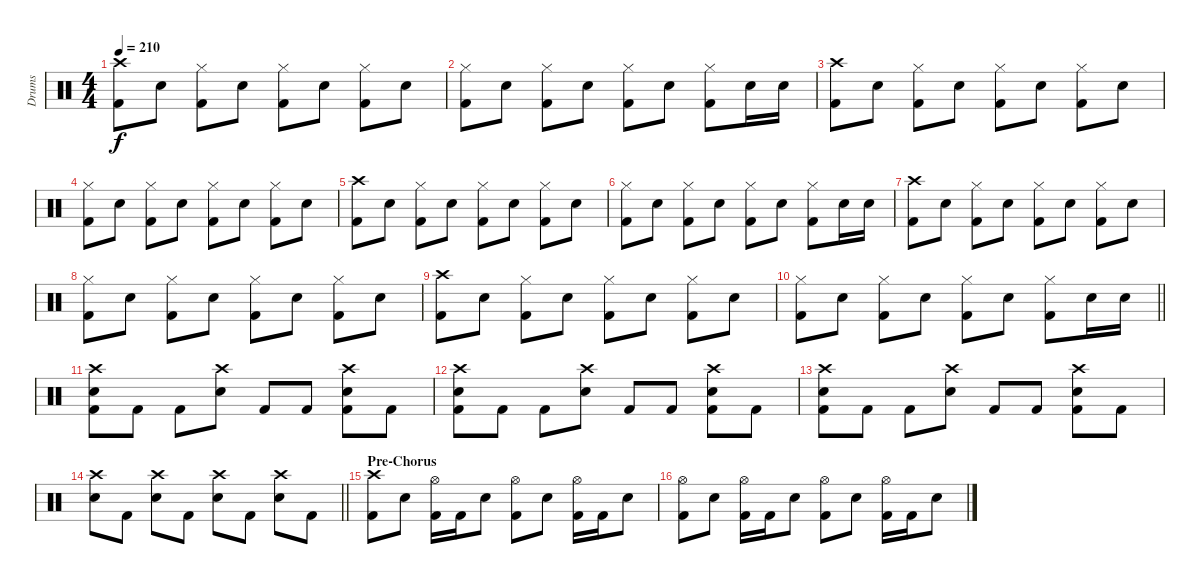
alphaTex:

\track ("Drums" "Drums") {instrument percussion}
\staff {score}
\articulation defaults
\ts (4 4)
\tempo 210
\clef neutral
\ks c
("Crash high (hit)" "Kick (hit) 2").8{dy f} "Snare (hit) 2".8 ("Hi-Hat (closed)" "Kick (hit) 2").8 "Snare (hit) 2".8 ("Hi-Hat (closed)" "Kick (hit) 2").8 "Snare (hit) 2".8 ("Hi-Hat (closed)" "Kick (hit) 2").8 "Snare (hit) 2".8 |
("Hi-Hat (closed)" "Kick (hit) 2").8 "Snare (hit) 2".8 ("Hi-Hat (closed)" "Kick (hit) 2").8 "Snare (hit) 2".8 ("Hi-Hat (closed)" "Kick (hit) 2").8 "Snare (hit) 2".8 ("Hi-Hat (closed)" "Kick (hit) 2").8 "Snare (hit) 2".16 "Snare (hit) 2".16 |
("Crash high (hit)" "Kick (hit) 2").8 "Snare (hit) 2".8 ("Hi-Hat (closed)" "Kick (hit) 2").8 "Snare (hit) 2".8 ("Hi-Hat (closed)" "Kick (hit) 2").8 "Snare (hit) 2".8 ("Hi-Hat (closed)" "Kick (hit) 2").8 "Snare (hit) 2".8 |
("Hi-Hat (closed)" "Kick (hit) 2").8 "Snare (hit) 2".8 ("Hi-Hat (closed)" "Kick (hit) 2").8 "Snare (hit) 2".8 ("Hi-Hat (closed)" "Kick (hit) 2").8 "Snare (hit) 2".8 ("Hi-Hat (closed)" "Kick (hit) 2").8 "Snare (hit) 2".8 |
("Crash high (hit)" "Kick (hit) 2").8 "Snare (hit) 2".8 ("Hi-Hat (closed)" "Kick (hit) 2").8 "Snare (hit) 2".8 ("Hi-Hat (closed)" "Kick (hit) 2").8 "Snare (hit) 2".8 ("Hi-Hat (closed)" "Kick (hit) 2").8 "Snare (hit) 2".8 |
("Hi-Hat (closed)" "Kick (hit) 2").8 "Snare (hit) 2".8 ("Hi-Hat (closed)" "Kick (hit) 2").8 "Snare (hit) 2".8 ("Hi-Hat (closed)" "Kick (hit) 2").8 "Snare (hit) 2".8 ("Hi-Hat (closed)" "Kick (hit) 2").8 "Snare (hit) 2".16 "Snare (hit) 2".16 |
("Crash high (hit)" "Kick (hit) 2").8 "Snare (hit) 2".8 ("Hi-Hat (closed)" "Kick (hit) 2").8 "Snare (hit) 2".8 ("Hi-Hat (closed)" "Kick (hit) 2").8 "Snare (hit) 2".8 ("Hi-Hat (closed)" "Kick (hit) 2").8 "Snare (hit) 2".8 |
("Hi-Hat (closed)" "Kick (hit) 2").8 "Snare (hit) 2".8 ("Hi-Hat (closed)" "Kick (hit) 2").8 "Snare (hit) 2".8 ("Hi-Hat (closed)" "Kick (hit) 2").8 "Snare (hit) 2".8 ("Hi-Hat (closed)" "Kick (hit) 2").8 "Snare (hit) 2".8 |
("Crash high (hit)" "Kick (hit) 2").8 "Snare (hit) 2".8 ("Hi-Hat (closed)" "Kick (hit) 2").8 "Snare (hit) 2".8 ("Hi-Hat (closed)" "Kick (hit) 2").8 "Snare (hit) 2".8 ("Hi-Hat (closed)" "Kick (hit) 2").8 "Snare (hit) 2".8 |
\barLineRight lightlight
("Hi-Hat (closed)" "Kick (hit) 2").8 "Snare (hit) 2".8 ("Hi-Hat (closed)" "Kick (hit) 2").8 "Snare (hit) 2".8 ("Hi-Hat (closed)" "Kick (hit) 2").8 "Snare (hit) 2".8 ("Hi-Hat (closed)" "Kick (hit) 2").8 "Snare (hit) 2".16 "Snare (hit) 2".16 |
("Crash high (hit)" "Snare (hit) 2" "Kick (hit) 2").8 "Kick (hit) 2".8 "Kick (hit) 2".8 ("Crash high (hit)" "Snare (hit) 2").8 "Kick (hit) 2".8 "Kick (hit) 2".8 ("Crash high (hit)" "Snare (hit) 2" "Kick (hit) 2").8 "Kick (hit) 2".8 |
("Crash high (hit)" "Snare (hit) 2" "Kick (hit) 2").8 "Kick (hit) 2".8 "Kick (hit) 2".8 ("Crash high (hit)" "Snare (hit) 2").8 "Kick (hit) 2".8 "Kick (hit) 2".8 ("Crash high (hit)" "Snare (hit) 2" "Kick (hit) 2").8 "Kick (hit) 2".8 |
("Crash high (hit)" "Snare (hit) 2" "Kick (hit) 2").8 "Kick (hit) 2".8 "Kick (hit) 2".8 ("Crash high (hit)" "Snare (hit) 2").8 "Kick (hit) 2".8 "Kick (hit) 2".8 ("Crash high (hit)" "Snare (hit) 2" "Kick (hit) 2").8 "Kick (hit) 2".8 |
\barLineRight lightlight
("Crash high (hit)" "Snare (hit) 2").8 "Kick (hit) 2".8 ("Crash high (hit)" "Snare (hit) 2").8 "Kick (hit) 2".8 ("Crash high (hit)" "Snare (hit) 2").8 "Kick (hit) 2".8 ("Crash high (hit)" "Snare (hit) 2").8 "Kick (hit) 2".8 |
\section ("" "Pre-Chorus")
("Crash high (hit)" "Kick (hit) 2").8 "Snare (hit) 2".8 ("Hi-Hat (open)" "Kick (hit) 2").16 "Kick (hit) 2".16 "Snare (hit) 2".8 ("Hi-Hat (open)" "Kick (hit) 2").8 "Snare (hit) 2".8 ("Hi-Hat (open)" "Kick (hit) 2").16 "Kick (hit) 2".16 "Snare (hit) 2".8 |
("Hi-Hat (open)" "Kick (hit) 2").8 "Snare (hit) 2".8 ("Hi-Hat (open)" "Kick (hit) 2").16 "Kick (hit) 2".16 "Snare (hit) 2".8 ("Hi-Hat (open)" "Kick (hit) 2").8 "Snare (hit) 2".8 ("Hi-Hat (open)" "Kick (hit) 2").16 "Kick (hit) 2".16 "Snare (hit) 2".8
